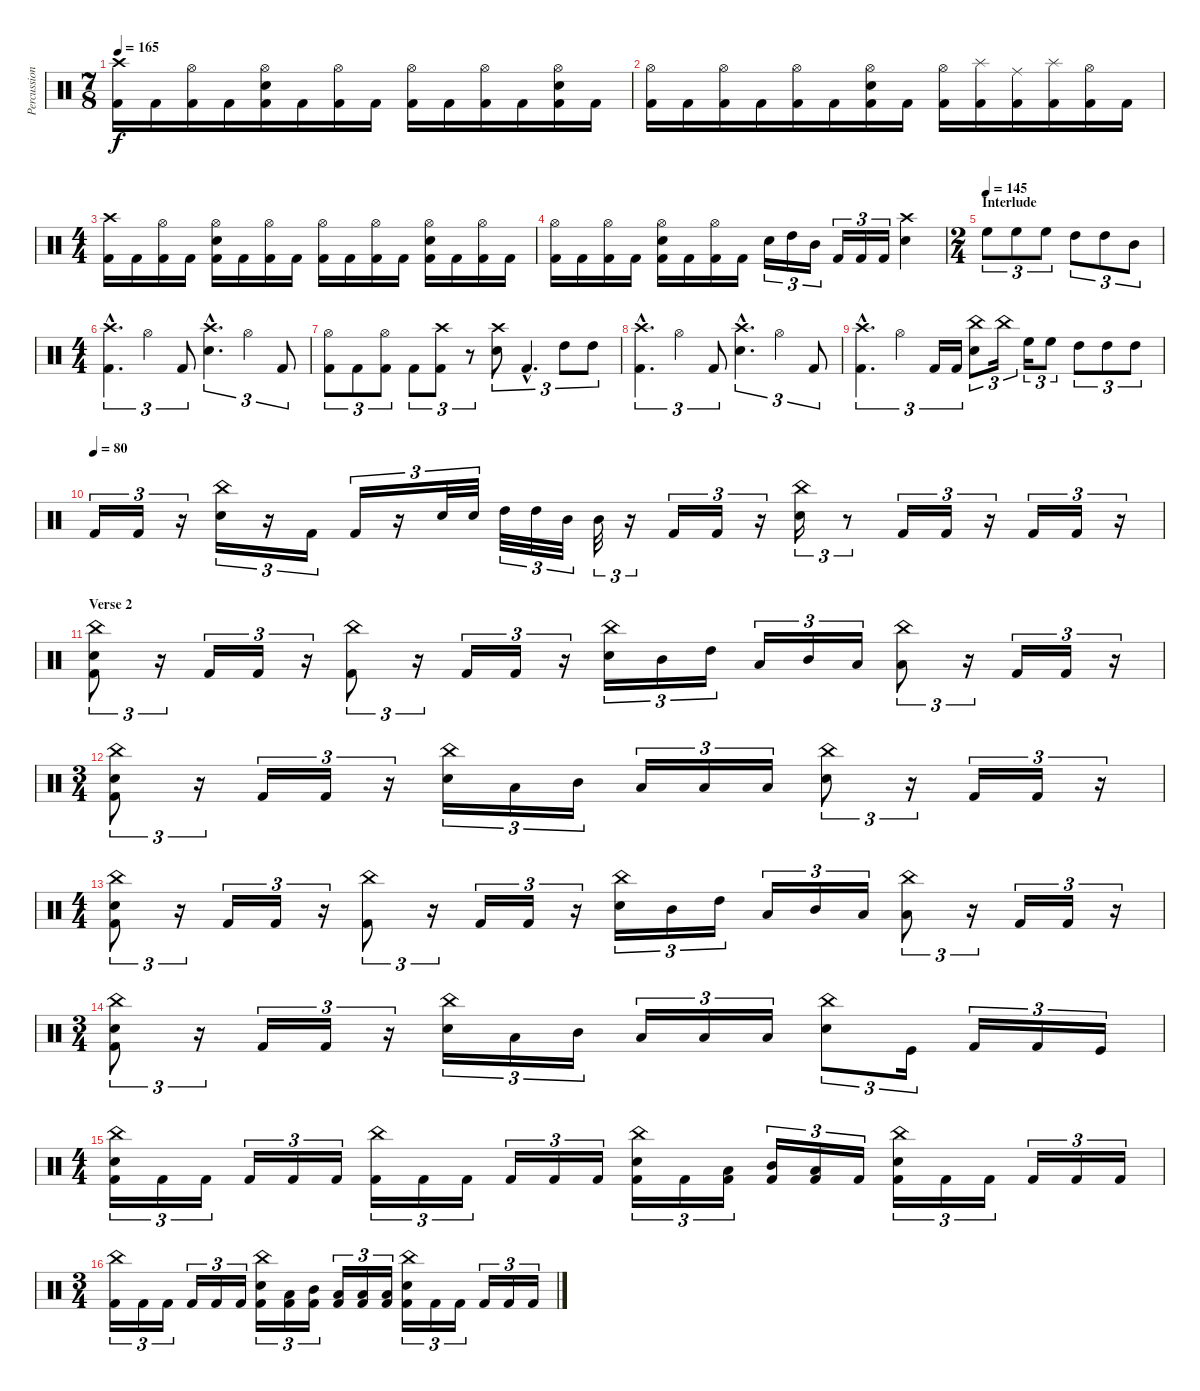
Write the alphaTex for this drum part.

\track ("Percussion" "Percussion") {instrument percussion}
\staff {score}
\articulation defaults
\ts (7 8)
\tempo 165
\clef neutral
\ks c
("Crash high (hit)" "Kick (hit) 2").16{dy f} "Kick (hit) 2".16 ("Hi-Hat (open)" "Kick (hit) 2").16 "Kick (hit) 2".16 ("Hi-Hat (open)" "Electric Snare (hit)" "Kick (hit) 2").16 "Kick (hit) 2".16 ("Hi-Hat (open)" "Kick (hit) 2").16 "Kick (hit) 2".16 ("Hi-Hat (open)" "Kick (hit) 2").16 "Kick (hit) 2".16 ("Hi-Hat (open)" "Kick (hit) 2").16 "Kick (hit) 2".16 ("Hi-Hat (open)" "Electric Snare (hit)" "Kick (hit) 2").16 "Kick (hit) 2".16 |
("Hi-Hat (open)" "Kick (hit) 2").16 "Kick (hit) 2".16 ("Hi-Hat (open)" "Kick (hit) 2").16 "Kick (hit) 2".16 ("Hi-Hat (open)" "Kick (hit) 2").16 "Kick (hit) 2".16 ("Hi-Hat (open)" "Electric Snare (hit)" "Kick (hit) 2").16 "Kick (hit) 2".16 ("Hi-Hat (open)" "Kick (hit) 2").16 ("Splash (hit)" "Kick (hit) 2").16 ("Ride (middle)" "Kick (hit) 2").16 ("Splash (hit)" "Kick (hit) 2").16 ("Hi-Hat (open)" "Kick (hit) 2").16 "Kick (hit) 2".16 |
\ts (4 4)
("Crash high (hit)" "Kick (hit) 2").16 "Kick (hit) 2".16 ("Hi-Hat (open)" "Kick (hit) 2").16 "Kick (hit) 2".16 ("Hi-Hat (open)" "Electric Snare (hit)" "Kick (hit) 2").16 "Kick (hit) 2".16 ("Hi-Hat (open)" "Kick (hit) 2").16 "Kick (hit) 2".16 ("Hi-Hat (open)" "Kick (hit) 2").16 "Kick (hit) 2".16 ("Hi-Hat (open)" "Kick (hit) 2").16 "Kick (hit) 2".16 ("Hi-Hat (open)" "Electric Snare (hit)" "Kick (hit) 2").16 "Kick (hit) 2".16 ("Hi-Hat (open)" "Kick (hit) 2").16 "Kick (hit) 2".16 |
("Hi-Hat (open)" "Kick (hit) 2").16 "Kick (hit) 2".16 ("Hi-Hat (open)" "Kick (hit) 2").16 "Kick (hit) 2".16 ("Hi-Hat (open)" "Electric Snare (hit)" "Kick (hit) 2").16 "Kick (hit) 2".16 ("Hi-Hat (open)" "Kick (hit) 2").16 "Kick (hit) 2".16 "Electric Snare (hit)".16{tu (3 2)} "High Tom (hit)".16{tu (3 2)} "Mid Tom (hit)".16{tu (3 2)} "Kick (hit) 2".16{tu (3 2)} "Kick (hit) 2".16{tu (3 2)} "Kick (hit) 2".16{tu (3 2)} ("Crash high (hit)" "Electric Snare (hit)").4 |
\ts (2 4)
\section ("" "Interlude")
\tempo (145)
"High Floor Tom (hit)".8{tu (3 2)} "High Floor Tom (hit)".8{tu (3 2)} "High Floor Tom (hit)".8{tu (3 2)} "High Tom (hit)".8{tu (3 2)} "High Tom (hit)".8{tu (3 2)} "Mid Tom (hit)".8{tu (3 2)} |
\ts (4 4)
("Crash high (hit)"{hac} "Kick (hit) 2"{hac}).4{d tu (3 2)} "Hi-Hat (open)".4{tu (3 2)} "Kick (hit) 2".8{tu (3 2)} ("Crash high (hit)"{hac} "Electric Snare (hit)"{hac}).4{d tu (3 2)} "Hi-Hat (open)".4{tu (3 2)} "Kick (hit) 2".8{tu (3 2)} |
("Hi-Hat (open)" "Kick (hit) 2").8{tu (3 2)} "Kick (hit) 2".8{tu (3 2)} ("Hi-Hat (open)" "Kick (hit) 2").8{tu (3 2)} "Kick (hit) 2".8{tu (3 2)} ("Crash high (hit)" "Kick (hit) 2").8{tu (3 2)} r.8{tu (3 2)} ("Crash high (hit)" "Electric Snare (hit)").8{tu (3 2)} "Kick (hit) 2"{hac}.4{d tu (3 2)} "High Tom (hit)".8{tu (3 2)} "High Tom (hit)".8{tu (3 2)} |
("Crash high (hit)"{hac} "Kick (hit) 2"{hac}).4{d tu (3 2)} "Hi-Hat (open)".4{tu (3 2)} "Kick (hit) 2".8{tu (3 2)} ("Crash high (hit)"{hac} "Electric Snare (hit)"{hac}).4{d tu (3 2)} "Hi-Hat (open)".4{tu (3 2)} "Kick (hit) 2".8{tu (3 2)} |
("Crash high (hit)"{hac} "Kick (hit) 2"{hac}).4{d tu (3 2)} "Hi-Hat (open)".4{tu (3 2)} "Kick (hit) 2".16{tu (3 2)} "Kick (hit) 2".16{tu (3 2)} ("China (hit)" "Electric Snare (hit)").8{tu (3 2)} "China (hit)".16{tu (3 2)} "High Floor Tom (hit)".16{tu (3 2)} "High Floor Tom (hit)".8{tu (3 2)} "High Tom (hit)".8{tu (3 2)} "High Tom (hit)".8{tu (3 2)} "High Tom (hit)".8{tu (3 2)} |
\tempo (80)
"Kick (hit) 2".16{tu (3 2)} "Kick (hit) 2".16{tu (3 2)} r.16{tu (3 2)} ("China (hit)" "Electric Snare (hit)").16{tu (3 2)} r.16{tu (3 2)} "Kick (hit) 2".16{tu (3 2)} "Kick (hit) 2".16{tu (3 2)} r.16{tu (3 2)} "Electric Snare (hit)".32{tu (3 2)} "Electric Snare (hit)".32{tu (3 2)} "High Tom (hit)".32{tu (3 2)} "High Tom (hit)".32{tu (3 2)} "Mid Tom (hit)".32{tu (3 2)} "Mid Tom (hit)".32{tu (3 2)} r.16{tu (3 2)} "Kick (hit) 2".16{tu (3 2)} "Kick (hit) 2".16{tu (3 2)} r.16{tu (3 2)} ("China (hit)" "Electric Snare (hit)").16{tu (3 2)} r.8{tu (3 2)} "Kick (hit) 2".16{tu (3 2)} "Kick (hit) 2".16{tu (3 2)} r.16{tu (3 2)} "Kick (hit) 2".16{tu (3 2)} "Kick (hit) 2".16{tu (3 2)} r.16{tu (3 2)} |
\section ("" "Verse 2")
("China (hit)" "Electric Snare (hit)" "Kick (hit) 2").8{tu (3 2)} r.16{tu (3 2)} "Kick (hit) 2".16{tu (3 2)} "Kick (hit) 2".16{tu (3 2)} r.16{tu (3 2)} ("China (hit)" "Kick (hit) 2").8{tu (3 2)} r.16{tu (3 2)} "Kick (hit) 2".16{tu (3 2)} "Kick (hit) 2".16{tu (3 2)} r.16{tu (3 2)} ("China (hit)" "Electric Snare (hit)").16{tu (3 2)} "Mid Tom (hit)".16{tu (3 2)} "High Tom (hit)".16{tu (3 2)} "Low Tom (hit)".16{tu (3 2)} "Mid Tom (hit)".16{tu (3 2)} "Low Floor Tom (hit)".16{tu (3 2)} ("China (hit)" "Low Tom (hit)").8{tu (3 2)} r.16{tu (3 2)} "Kick (hit) 2".16{tu (3 2)} "Kick (hit) 2".16{tu (3 2)} r.16{tu (3 2)} |
\ts (3 4)
("China (hit)" "Electric Snare (hit)" "Kick (hit) 2").8{tu (3 2)} r.16{tu (3 2)} "Kick (hit) 2".16{tu (3 2)} "Kick (hit) 2".16{tu (3 2)} r.16{tu (3 2)} ("China (hit)" "Electric Snare (hit)").16{tu (3 2)} "Low Tom (hit)".16{tu (3 2)} "Mid Tom (hit)".16{tu (3 2)} "Low Floor Tom (hit)".16{tu (3 2)} "Low Tom (hit)".16{tu (3 2)} "Low Floor Tom (hit)".16{tu (3 2)} ("China (hit)" "Electric Snare (hit)").8{tu (3 2)} r.16{tu (3 2)} "Kick (hit) 2".16{tu (3 2)} "Kick (hit) 2".16{tu (3 2)} r.16{tu (3 2)} |
\ts (4 4)
("China (hit)" "Electric Snare (hit)" "Kick (hit) 2").8{tu (3 2)} r.16{tu (3 2)} "Kick (hit) 2".16{tu (3 2)} "Kick (hit) 2".16{tu (3 2)} r.16{tu (3 2)} ("China (hit)" "Kick (hit) 2").8{tu (3 2)} r.16{tu (3 2)} "Kick (hit) 2".16{tu (3 2)} "Kick (hit) 2".16{tu (3 2)} r.16{tu (3 2)} ("China (hit)" "Electric Snare (hit)").16{tu (3 2)} "Mid Tom (hit)".16{tu (3 2)} "High Tom (hit)".16{tu (3 2)} "Low Tom (hit)".16{tu (3 2)} "Mid Tom (hit)".16{tu (3 2)} "Low Floor Tom (hit)".16{tu (3 2)} ("China (hit)" "Low Tom (hit)").8{tu (3 2)} r.16{tu (3 2)} "Kick (hit) 2".16{tu (3 2)} "Kick (hit) 2".16{tu (3 2)} r.16{tu (3 2)} |
\ts (3 4)
("China (hit)" "Electric Snare (hit)" "Kick (hit) 2").8{tu (3 2)} r.16{tu (3 2)} "Kick (hit) 2".16{tu (3 2)} "Kick (hit) 2".16{tu (3 2)} r.16{tu (3 2)} ("China (hit)" "Electric Snare (hit)").16{tu (3 2)} "Low Tom (hit)".16{tu (3 2)} "Mid Tom (hit)".16{tu (3 2)} "Low Floor Tom (hit)".16{tu (3 2)} "Low Tom (hit)".16{tu (3 2)} "Low Floor Tom (hit)".16{tu (3 2)} ("China (hit)" "Electric Snare (hit)").8{tu (3 2)} "Kick (hit)".16{tu (3 2)} "Kick (hit) 2".16{tu (3 2)} "Kick (hit) 2".16{tu (3 2)} "Kick (hit)".16{tu (3 2)} |
\ts (4 4)
("China (hit)" "Electric Snare (hit)" "Kick (hit) 2").16{tu (3 2)} "Kick (hit) 2".16{tu (3 2)} "Kick (hit) 2".16{tu (3 2)} "Kick (hit) 2".16{tu (3 2)} "Kick (hit) 2".16{tu (3 2)} "Kick (hit) 2".16{tu (3 2)} ("China (hit)" "Kick (hit) 2").16{tu (3 2)} "Kick (hit) 2".16{tu (3 2)} "Kick (hit) 2".16{tu (3 2)} "Kick (hit) 2".16{tu (3 2)} "Kick (hit) 2".16{tu (3 2)} "Kick (hit) 2".16{tu (3 2)} ("China (hit)" "Electric Snare (hit)" "Kick (hit) 2").16{tu (3 2)} "Kick (hit) 2".16{tu (3 2)} ("Low Tom (hit)" "Kick (hit) 2").16{tu (3 2)} ("Mid Tom (hit)" "Kick (hit) 2").16{tu (3 2)} ("Low Tom (hit)" "Kick (hit) 2").16{tu (3 2)} "Kick (hit) 2".16{tu (3 2)} ("China (hit)" "Electric Snare (hit)" "Kick (hit) 2").16{tu (3 2)} "Kick (hit) 2".16{tu (3 2)} "Kick (hit) 2".16{tu (3 2)} "Kick (hit) 2".16{tu (3 2)} "Kick (hit) 2".16{tu (3 2)} "Kick (hit) 2".16{tu (3 2)} |
\ts (3 4)
("China (hit)" "Kick (hit) 2").16{tu (3 2)} "Kick (hit) 2".16{tu (3 2)} "Kick (hit) 2".16{tu (3 2)} "Kick (hit) 2".16{tu (3 2)} "Kick (hit) 2".16{tu (3 2)} "Kick (hit) 2".16{tu (3 2)} ("China (hit)" "Electric Snare (hit)" "Kick (hit) 2").16{tu (3 2)} ("Low Tom (hit)" "Kick (hit) 2").16{tu (3 2)} ("Mid Tom (hit)" "Kick (hit) 2").16{tu (3 2)} ("Low Floor Tom (hit)" "Kick (hit) 2").16{tu (3 2)} ("Low Tom (hit)" "Kick (hit) 2").16{tu (3 2)} ("Low Floor Tom (hit)" "Kick (hit) 2").16{tu (3 2)} ("China (hit)" "Electric Snare (hit)" "Kick (hit) 2").16{tu (3 2)} "Kick (hit) 2".16{tu (3 2)} "Kick (hit) 2".16{tu (3 2)} "Kick (hit) 2".16{tu (3 2)} "Kick (hit) 2".16{tu (3 2)} "Kick (hit) 2".16{tu (3 2)}
